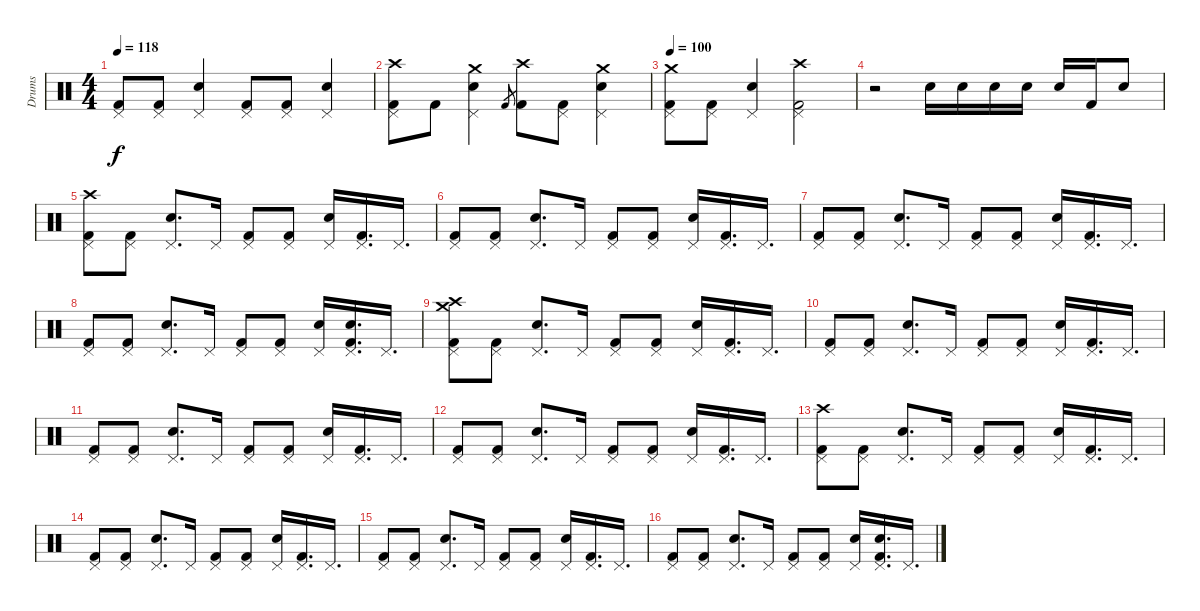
\track ("Drums" "Drums") {instrument percussion}
\staff
\articulation defaults
\ts (4 4)
\tempo 118
\clef neutral
\ks c
("Pedal Hi-Hat (hit)" "Kick (hit) 2").8{dy f} ("Pedal Hi-Hat (hit)" "Kick (hit) 2").8 ("Pedal Hi-Hat (hit)" "Electric Snare (hit)").4 ("Pedal Hi-Hat (hit)" "Kick (hit) 2").8 ("Pedal Hi-Hat (hit)" "Kick (hit) 2").8 ("Pedal Hi-Hat (hit)" "Electric Snare (hit)").4 |
("Crash high (hit)" "Pedal Hi-Hat (hit)" "Kick (hit) 2").8 "Kick (hit) 2".8 ("Pedal Hi-Hat (hit)" "Electric Snare (hit)" "Crash medium (hit)").4 "Kick (hit) 2".8{gr} ("Crash high (hit)" "Kick (hit) 2").8 ("Pedal Hi-Hat (hit)" "Kick (hit) 2").8 ("Pedal Hi-Hat (hit)" "Electric Snare (hit)" "Crash medium (hit)").4 |
\tempo 100
("Pedal Hi-Hat (hit)" "Crash medium (hit)" "Kick (hit) 2").8 ("Pedal Hi-Hat (hit)" "Kick (hit) 2").8 ("Pedal Hi-Hat (hit)" "Electric Snare (hit)").4 ("Pedal Hi-Hat (hit)" "Crash high (hit)" "Kick (hit) 2").2 |
r.2 "Electric Snare (hit)".16 "Electric Snare (hit)".16 "Electric Snare (hit)".16 "Electric Snare (hit)".16 "Electric Snare (hit)".16 "Kick (hit) 2".16 "Electric Snare (hit)".8 |
("Pedal Hi-Hat (hit)" "Crash high (hit)" "Kick (hit) 2").8 ("Pedal Hi-Hat (hit)" "Kick (hit) 2").8 ("Electric Snare (hit)" "Pedal Hi-Hat (hit)").8{d} "Pedal Hi-Hat (hit)".16 ("Pedal Hi-Hat (hit)" "Kick (hit) 2").8 ("Pedal Hi-Hat (hit)" "Kick (hit) 2").8 ("Electric Snare (hit)" "Pedal Hi-Hat (hit)").16 ("Pedal Hi-Hat (hit)" "Kick (hit) 2").16{d} "Pedal Hi-Hat (hit)".16{d} |
("Pedal Hi-Hat (hit)" "Kick (hit) 2").8 ("Pedal Hi-Hat (hit)" "Kick (hit) 2").8 ("Electric Snare (hit)" "Pedal Hi-Hat (hit)").8{d} "Pedal Hi-Hat (hit)".16 ("Pedal Hi-Hat (hit)" "Kick (hit) 2").8 ("Pedal Hi-Hat (hit)" "Kick (hit) 2").8 ("Electric Snare (hit)" "Pedal Hi-Hat (hit)").16 ("Pedal Hi-Hat (hit)" "Kick (hit) 2").16{d} "Pedal Hi-Hat (hit)".16{d} |
("Pedal Hi-Hat (hit)" "Kick (hit) 2").8 ("Pedal Hi-Hat (hit)" "Kick (hit) 2").8 ("Electric Snare (hit)" "Pedal Hi-Hat (hit)").8{d} "Pedal Hi-Hat (hit)".16 ("Pedal Hi-Hat (hit)" "Kick (hit) 2").8 ("Pedal Hi-Hat (hit)" "Kick (hit) 2").8 ("Electric Snare (hit)" "Pedal Hi-Hat (hit)").16 ("Pedal Hi-Hat (hit)" "Kick (hit) 2").16{d} "Pedal Hi-Hat (hit)".16{d} |
("Pedal Hi-Hat (hit)" "Kick (hit) 2").8 ("Pedal Hi-Hat (hit)" "Kick (hit) 2").8 ("Electric Snare (hit)" "Pedal Hi-Hat (hit)").8{d} "Pedal Hi-Hat (hit)".16 ("Pedal Hi-Hat (hit)" "Kick (hit) 2").8 ("Pedal Hi-Hat (hit)" "Kick (hit) 2").8 ("Electric Snare (hit)" "Pedal Hi-Hat (hit)").16 ("Pedal Hi-Hat (hit)" "Electric Snare (hit)" "Kick (hit) 2").16{d} "Pedal Hi-Hat (hit)".16{d} |
("Pedal Hi-Hat (hit)" "Crash high (hit)" "Crash medium (hit)" "Kick (hit) 2").8 ("Pedal Hi-Hat (hit)" "Kick (hit) 2").8 ("Electric Snare (hit)" "Pedal Hi-Hat (hit)").8{d} "Pedal Hi-Hat (hit)".16 ("Pedal Hi-Hat (hit)" "Kick (hit) 2").8 ("Pedal Hi-Hat (hit)" "Kick (hit) 2").8 ("Electric Snare (hit)" "Pedal Hi-Hat (hit)").16 ("Pedal Hi-Hat (hit)" "Kick (hit) 2").16{d} "Pedal Hi-Hat (hit)".16{d} |
("Pedal Hi-Hat (hit)" "Kick (hit) 2").8 ("Pedal Hi-Hat (hit)" "Kick (hit) 2").8 ("Electric Snare (hit)" "Pedal Hi-Hat (hit)").8{d} "Pedal Hi-Hat (hit)".16 ("Pedal Hi-Hat (hit)" "Kick (hit) 2").8 ("Pedal Hi-Hat (hit)" "Kick (hit) 2").8 ("Electric Snare (hit)" "Pedal Hi-Hat (hit)").16 ("Pedal Hi-Hat (hit)" "Kick (hit) 2").16{d} "Pedal Hi-Hat (hit)".16{d} |
("Pedal Hi-Hat (hit)" "Kick (hit) 2").8 ("Pedal Hi-Hat (hit)" "Kick (hit) 2").8 ("Electric Snare (hit)" "Pedal Hi-Hat (hit)").8{d} "Pedal Hi-Hat (hit)".16 ("Pedal Hi-Hat (hit)" "Kick (hit) 2").8 ("Pedal Hi-Hat (hit)" "Kick (hit) 2").8 ("Electric Snare (hit)" "Pedal Hi-Hat (hit)").16 ("Pedal Hi-Hat (hit)" "Kick (hit) 2").16{d} "Pedal Hi-Hat (hit)".16{d} |
("Pedal Hi-Hat (hit)" "Kick (hit) 2").8 ("Pedal Hi-Hat (hit)" "Kick (hit) 2").8 ("Electric Snare (hit)" "Pedal Hi-Hat (hit)").8{d} "Pedal Hi-Hat (hit)".16 ("Pedal Hi-Hat (hit)" "Kick (hit) 2").8 ("Pedal Hi-Hat (hit)" "Kick (hit) 2").8 ("Electric Snare (hit)" "Pedal Hi-Hat (hit)").16 ("Pedal Hi-Hat (hit)" "Kick (hit) 2").16{d} "Pedal Hi-Hat (hit)".16{d} |
("Pedal Hi-Hat (hit)" "Crash high (hit)" "Kick (hit) 2").8 ("Pedal Hi-Hat (hit)" "Kick (hit) 2").8 ("Electric Snare (hit)" "Pedal Hi-Hat (hit)").8{d} "Pedal Hi-Hat (hit)".16 ("Pedal Hi-Hat (hit)" "Kick (hit) 2").8 ("Pedal Hi-Hat (hit)" "Kick (hit) 2").8 ("Electric Snare (hit)" "Pedal Hi-Hat (hit)").16 ("Pedal Hi-Hat (hit)" "Kick (hit) 2").16{d} "Pedal Hi-Hat (hit)".16{d} |
("Pedal Hi-Hat (hit)" "Kick (hit) 2").8 ("Pedal Hi-Hat (hit)" "Kick (hit) 2").8 ("Electric Snare (hit)" "Pedal Hi-Hat (hit)").8{d} "Pedal Hi-Hat (hit)".16 ("Pedal Hi-Hat (hit)" "Kick (hit) 2").8 ("Pedal Hi-Hat (hit)" "Kick (hit) 2").8 ("Electric Snare (hit)" "Pedal Hi-Hat (hit)").16 ("Pedal Hi-Hat (hit)" "Kick (hit) 2").16{d} "Pedal Hi-Hat (hit)".16{d} |
("Pedal Hi-Hat (hit)" "Kick (hit) 2").8 ("Pedal Hi-Hat (hit)" "Kick (hit) 2").8 ("Electric Snare (hit)" "Pedal Hi-Hat (hit)").8{d} "Pedal Hi-Hat (hit)".16 ("Pedal Hi-Hat (hit)" "Kick (hit) 2").8 ("Pedal Hi-Hat (hit)" "Kick (hit) 2").8 ("Electric Snare (hit)" "Pedal Hi-Hat (hit)").16 ("Pedal Hi-Hat (hit)" "Kick (hit) 2").16{d} "Pedal Hi-Hat (hit)".16{d} |
("Pedal Hi-Hat (hit)" "Kick (hit) 2").8 ("Pedal Hi-Hat (hit)" "Kick (hit) 2").8 ("Electric Snare (hit)" "Pedal Hi-Hat (hit)").8{d} "Pedal Hi-Hat (hit)".16 ("Pedal Hi-Hat (hit)" "Kick (hit) 2").8 ("Pedal Hi-Hat (hit)" "Kick (hit) 2").8 ("Electric Snare (hit)" "Pedal Hi-Hat (hit)").16 ("Pedal Hi-Hat (hit)" "Electric Snare (hit)" "Kick (hit) 2").16{d} "Pedal Hi-Hat (hit)".16{d}
